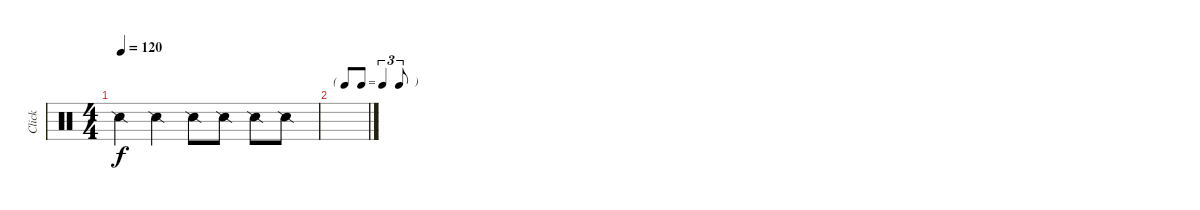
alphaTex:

\track ("Click" "Click") {instrument percussion}
\staff {score}
\articulation defaults
\ts (4 4)
\tempo 120
\clef neutral
\ks c "Snare (side stick) 2".4{dy f} "Snare (side stick) 2".4 "Snare (side stick) 2".8 "Snare (side stick) 2".8 "Snare (side stick) 2".8 "Snare (side stick) 2".8
|
\tf triplet8th
